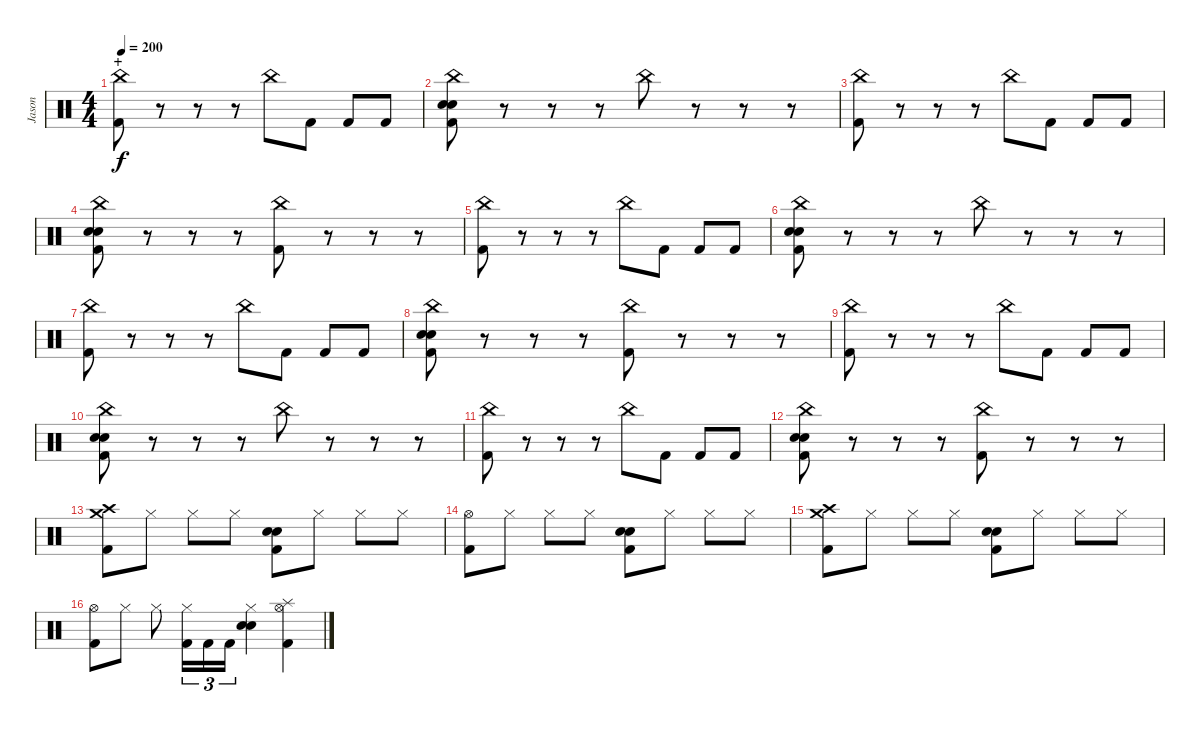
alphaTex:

\track ("Jason" "Jason") {instrument percussion}
\staff {score}
\articulation defaults
\ts (4 4)
\section ("" "+")
\tempo 200
\clef neutral
\ks c
("China (hit)" "Kick (hit) 2").8{dy f} r.8 r.8 r.8 "China (hit)".8 "Kick (hit) 2".8 "Kick (hit) 2".8 "Kick (hit) 2".8 |
("China (hit)" "Electric Snare (hit)" "Snare (hit) 2" "Kick (hit) 2").8 r.8 r.8 r.8 "China (hit)".8 r.8 r.8 r.8 |
("China (hit)" "Kick (hit) 2").8 r.8 r.8 r.8 "China (hit)".8 "Kick (hit) 2".8 "Kick (hit) 2".8 "Kick (hit) 2".8 |
("China (hit)" "Electric Snare (hit)" "Snare (hit) 2" "Kick (hit) 2").8 r.8 r.8 r.8 ("China (hit)" "Kick (hit) 2").8 r.8 r.8 r.8 |
("China (hit)" "Kick (hit) 2").8 r.8 r.8 r.8 "China (hit)".8 "Kick (hit) 2".8 "Kick (hit) 2".8 "Kick (hit) 2".8 |
("China (hit)" "Electric Snare (hit)" "Snare (hit) 2" "Kick (hit) 2").8 r.8 r.8 r.8 "China (hit)".8 r.8 r.8 r.8 |
("China (hit)" "Kick (hit) 2").8 r.8 r.8 r.8 "China (hit)".8 "Kick (hit) 2".8 "Kick (hit) 2".8 "Kick (hit) 2".8 |
("China (hit)" "Electric Snare (hit)" "Snare (hit) 2" "Kick (hit) 2").8 r.8 r.8 r.8 ("China (hit)" "Kick (hit) 2").8 r.8 r.8 r.8 |
("China (hit)" "Kick (hit) 2").8 r.8 r.8 r.8 "China (hit)".8 "Kick (hit) 2".8 "Kick (hit) 2".8 "Kick (hit) 2".8 |
("China (hit)" "Electric Snare (hit)" "Snare (hit) 2" "Kick (hit) 2").8 r.8 r.8 r.8 "China (hit)".8 r.8 r.8 r.8 |
("China (hit)" "Kick (hit) 2").8 r.8 r.8 r.8 "China (hit)".8 "Kick (hit) 2".8 "Kick (hit) 2".8 "Kick (hit) 2".8 |
("China (hit)" "Electric Snare (hit)" "Snare (hit) 2" "Kick (hit) 2").8 r.8 r.8 r.8 ("China (hit)" "Kick (hit) 2").8 r.8 r.8 r.8 |
("Crash medium (hit)" "Crash high (hit)" "Kick (hit) 2").8 "Hi-Hat (closed)".8 "Hi-Hat (closed)".8 "Hi-Hat (closed)".8 ("Electric Snare (hit)" "Snare (hit) 2" "Kick (hit) 2").8 "Hi-Hat (closed)".8 "Hi-Hat (closed)".8 "Hi-Hat (closed)".8 |
("Hi-Hat (open)" "Kick (hit) 2").8 "Hi-Hat (closed)".8 "Hi-Hat (closed)".8 "Hi-Hat (closed)".8 ("Electric Snare (hit)" "Snare (hit) 2" "Kick (hit) 2").8 "Hi-Hat (closed)".8 "Hi-Hat (closed)".8 "Hi-Hat (closed)".8 |
("Crash medium (hit)" "Crash high (hit)" "Kick (hit) 2").8 "Hi-Hat (closed)".8 "Hi-Hat (closed)".8 "Hi-Hat (closed)".8 ("Electric Snare (hit)" "Snare (hit) 2" "Kick (hit) 2").8 "Hi-Hat (closed)".8 "Hi-Hat (closed)".8 "Hi-Hat (closed)".8 |
("Hi-Hat (open)" "Kick (hit) 2").8 "Hi-Hat (closed)".8 "Hi-Hat (closed)".8 ("Hi-Hat (closed)" "Kick (hit) 2").16{tu (3 2)} "Kick (hit) 2".16{tu (3 2)} "Kick (hit) 2".16{tu (3 2)} ("Hi-Hat (closed)" "Electric Snare (hit)" "Snare (hit) 2").4 ("Splash (hit)" "Hi-Hat (open)" "Kick (hit) 2").4
